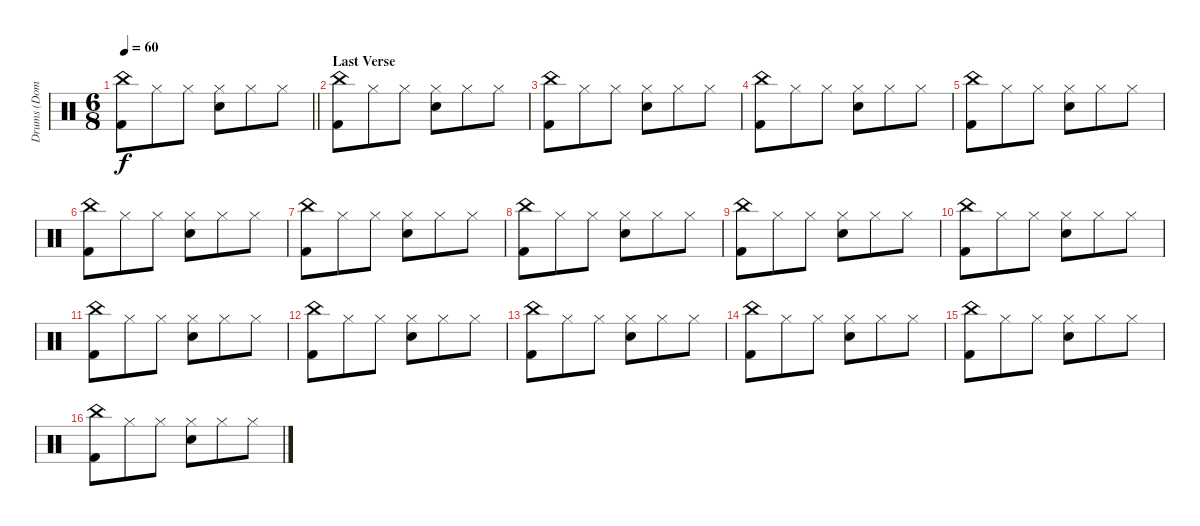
\track ("Drums (Dom)" "Drums (Dom") {instrument percussion}
\staff {score}
\articulation defaults
\ts (6 8)
\tempo 60
\clef neutral
\barLineRight lightlight
\ks c
("China (hit)" "Kick (hit) 2").8{dy f} "Hi-Hat (closed)".8 "Hi-Hat (closed)".8 ("Hi-Hat (closed)" "Snare (hit) 2").8 "Hi-Hat (closed)".8 "Hi-Hat (closed)".8 |
\section ("" "Last Verse")
("China (hit)" "Kick (hit) 2").8 "Hi-Hat (closed)".8 "Hi-Hat (closed)".8 ("Hi-Hat (closed)" "Snare (hit) 2").8 "Hi-Hat (closed)".8 "Hi-Hat (closed)".8 |
("China (hit)" "Kick (hit) 2").8 "Hi-Hat (closed)".8 "Hi-Hat (closed)".8 ("Hi-Hat (closed)" "Snare (hit) 2").8 "Hi-Hat (closed)".8 "Hi-Hat (closed)".8 |
("China (hit)" "Kick (hit) 2").8 "Hi-Hat (closed)".8 "Hi-Hat (closed)".8 ("Hi-Hat (closed)" "Snare (hit) 2").8 "Hi-Hat (closed)".8 "Hi-Hat (closed)".8 |
("China (hit)" "Kick (hit) 2").8 "Hi-Hat (closed)".8 "Hi-Hat (closed)".8 ("Hi-Hat (closed)" "Snare (hit) 2").8 "Hi-Hat (closed)".8 "Hi-Hat (closed)".8 |
("China (hit)" "Kick (hit) 2").8 "Hi-Hat (closed)".8 "Hi-Hat (closed)".8 ("Hi-Hat (closed)" "Snare (hit) 2").8 "Hi-Hat (closed)".8 "Hi-Hat (closed)".8 |
("China (hit)" "Kick (hit) 2").8 "Hi-Hat (closed)".8 "Hi-Hat (closed)".8 ("Hi-Hat (closed)" "Snare (hit) 2").8 "Hi-Hat (closed)".8 "Hi-Hat (closed)".8 |
("China (hit)" "Kick (hit) 2").8 "Hi-Hat (closed)".8 "Hi-Hat (closed)".8 ("Hi-Hat (closed)" "Snare (hit) 2").8 "Hi-Hat (closed)".8 "Hi-Hat (closed)".8 |
("China (hit)" "Kick (hit) 2").8 "Hi-Hat (closed)".8 "Hi-Hat (closed)".8 ("Hi-Hat (closed)" "Snare (hit) 2").8 "Hi-Hat (closed)".8 "Hi-Hat (closed)".8 |
("China (hit)" "Kick (hit) 2").8 "Hi-Hat (closed)".8 "Hi-Hat (closed)".8 ("Hi-Hat (closed)" "Snare (hit) 2").8 "Hi-Hat (closed)".8 "Hi-Hat (closed)".8 |
("China (hit)" "Kick (hit) 2").8 "Hi-Hat (closed)".8 "Hi-Hat (closed)".8 ("Hi-Hat (closed)" "Snare (hit) 2").8 "Hi-Hat (closed)".8 "Hi-Hat (closed)".8 |
("China (hit)" "Kick (hit) 2").8 "Hi-Hat (closed)".8 "Hi-Hat (closed)".8 ("Hi-Hat (closed)" "Snare (hit) 2").8 "Hi-Hat (closed)".8 "Hi-Hat (closed)".8 |
("China (hit)" "Kick (hit) 2").8 "Hi-Hat (closed)".8 "Hi-Hat (closed)".8 ("Hi-Hat (closed)" "Snare (hit) 2").8 "Hi-Hat (closed)".8 "Hi-Hat (closed)".8 |
("China (hit)" "Kick (hit) 2").8 "Hi-Hat (closed)".8 "Hi-Hat (closed)".8 ("Hi-Hat (closed)" "Snare (hit) 2").8 "Hi-Hat (closed)".8 "Hi-Hat (closed)".8 |
("China (hit)" "Kick (hit) 2").8 "Hi-Hat (closed)".8 "Hi-Hat (closed)".8 ("Hi-Hat (closed)" "Snare (hit) 2").8 "Hi-Hat (closed)".8 "Hi-Hat (closed)".8 |
("China (hit)" "Kick (hit) 2").8 "Hi-Hat (closed)".8 "Hi-Hat (closed)".8 ("Hi-Hat (closed)" "Snare (hit) 2").8 "Hi-Hat (closed)".8 "Hi-Hat (closed)".8
